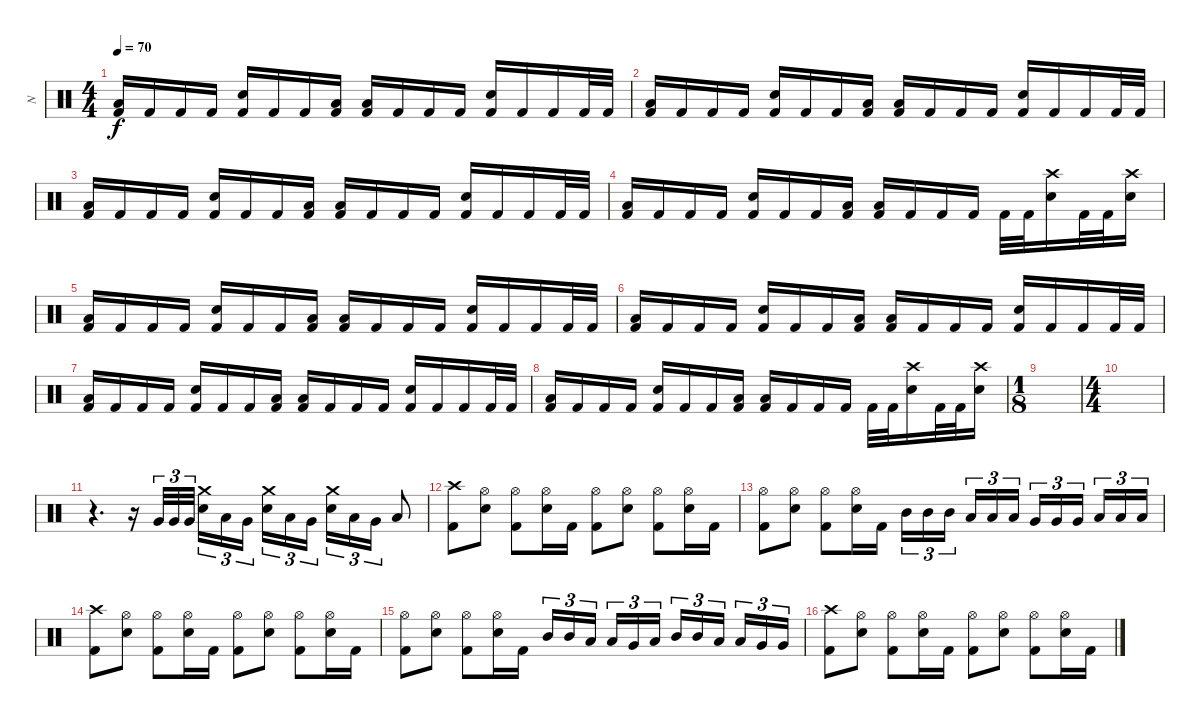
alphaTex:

\track ("N" "N") {instrument percussion}
\staff {score}
\articulation defaults
\ts (4 4)
\section ("" " ")
\tempo 70
\clef neutral
\ks c
("Low Tom (hit)" "Kick (hit) 2").16{dy f} "Kick (hit) 2".16 "Kick (hit) 2".16 "Kick (hit) 2".16 ("Electric Snare (hit)" "Kick (hit) 2").16 "Kick (hit) 2".16 "Kick (hit) 2".16 ("Low Tom (hit)" "Kick (hit) 2").16 ("Low Tom (hit)" "Kick (hit) 2").16 "Kick (hit) 2".16 "Kick (hit) 2".16 "Kick (hit) 2".16 ("Electric Snare (hit)" "Kick (hit) 2").16 "Kick (hit) 2".16 "Kick (hit) 2".16 "Kick (hit) 2".32 "Kick (hit) 2".32 |
("Low Tom (hit)" "Kick (hit) 2").16 "Kick (hit) 2".16 "Kick (hit) 2".16 "Kick (hit) 2".16 ("Electric Snare (hit)" "Kick (hit) 2").16 "Kick (hit) 2".16 "Kick (hit) 2".16 ("Low Tom (hit)" "Kick (hit) 2").16 ("Low Tom (hit)" "Kick (hit) 2").16 "Kick (hit) 2".16 "Kick (hit) 2".16 "Kick (hit) 2".16 ("Electric Snare (hit)" "Kick (hit) 2").16 "Kick (hit) 2".16 "Kick (hit) 2".16 "Kick (hit) 2".32 "Kick (hit) 2".32 |
("Low Tom (hit)" "Kick (hit) 2").16 "Kick (hit) 2".16 "Kick (hit) 2".16 "Kick (hit) 2".16 ("Electric Snare (hit)" "Kick (hit) 2").16 "Kick (hit) 2".16 "Kick (hit) 2".16 ("Low Tom (hit)" "Kick (hit) 2").16 ("Low Tom (hit)" "Kick (hit) 2").16 "Kick (hit) 2".16 "Kick (hit) 2".16 "Kick (hit) 2".16 ("Electric Snare (hit)" "Kick (hit) 2").16 "Kick (hit) 2".16 "Kick (hit) 2".16 "Kick (hit) 2".32 "Kick (hit) 2".32 |
("Low Tom (hit)" "Kick (hit) 2").16 "Kick (hit) 2".16 "Kick (hit) 2".16 "Kick (hit) 2".16 ("Electric Snare (hit)" "Kick (hit) 2").16 "Kick (hit) 2".16 "Kick (hit) 2".16 ("Low Tom (hit)" "Kick (hit) 2").16 ("Low Tom (hit)" "Kick (hit) 2").16 "Kick (hit) 2".16 "Kick (hit) 2".16 "Kick (hit) 2".16 "Kick (hit) 2".32 "Kick (hit) 2".32 ("Crash high (hit)" "Electric Snare (hit)").16 "Kick (hit) 2".32 "Kick (hit) 2".32 ("Crash high (hit)" "Electric Snare (hit)").16 |
("Low Tom (hit)" "Kick (hit) 2").16 "Kick (hit) 2".16 "Kick (hit) 2".16 "Kick (hit) 2".16 ("Electric Snare (hit)" "Kick (hit) 2").16 "Kick (hit) 2".16 "Kick (hit) 2".16 ("Low Tom (hit)" "Kick (hit) 2").16 ("Low Tom (hit)" "Kick (hit) 2").16 "Kick (hit) 2".16 "Kick (hit) 2".16 "Kick (hit) 2".16 ("Electric Snare (hit)" "Kick (hit) 2").16 "Kick (hit) 2".16 "Kick (hit) 2".16 "Kick (hit) 2".32 "Kick (hit) 2".32 |
("Low Tom (hit)" "Kick (hit) 2").16 "Kick (hit) 2".16 "Kick (hit) 2".16 "Kick (hit) 2".16 ("Electric Snare (hit)" "Kick (hit) 2").16 "Kick (hit) 2".16 "Kick (hit) 2".16 ("Low Tom (hit)" "Kick (hit) 2").16 ("Low Tom (hit)" "Kick (hit) 2").16 "Kick (hit) 2".16 "Kick (hit) 2".16 "Kick (hit) 2".16 ("Electric Snare (hit)" "Kick (hit) 2").16 "Kick (hit) 2".16 "Kick (hit) 2".16 "Kick (hit) 2".32 "Kick (hit) 2".32 |
("Low Tom (hit)" "Kick (hit) 2").16 "Kick (hit) 2".16 "Kick (hit) 2".16 "Kick (hit) 2".16 ("Electric Snare (hit)" "Kick (hit) 2").16 "Kick (hit) 2".16 "Kick (hit) 2".16 ("Low Tom (hit)" "Kick (hit) 2").16 ("Low Tom (hit)" "Kick (hit) 2").16 "Kick (hit) 2".16 "Kick (hit) 2".16 "Kick (hit) 2".16 ("Electric Snare (hit)" "Kick (hit) 2").16 "Kick (hit) 2".16 "Kick (hit) 2".16 "Kick (hit) 2".32 "Kick (hit) 2".32 |
("Low Tom (hit)" "Kick (hit) 2").16 "Kick (hit) 2".16 "Kick (hit) 2".16 "Kick (hit) 2".16 ("Electric Snare (hit)" "Kick (hit) 2").16 "Kick (hit) 2".16 "Kick (hit) 2".16 ("Low Tom (hit)" "Kick (hit) 2").16 ("Low Tom (hit)" "Kick (hit) 2").16 "Kick (hit) 2".16 "Kick (hit) 2".16 "Kick (hit) 2".16 "Kick (hit) 2".32 "Kick (hit) 2".32 ("Crash high (hit)" "Electric Snare (hit)").16 "Kick (hit) 2".32 "Kick (hit) 2".32 ("Crash high (hit)" "Electric Snare (hit)").16 |
\ts (1 8)
|
\ts (4 4)
\section ("" " ")
|
r.4{d} r.16 "Very Low Tom (hit)".32{tu (3 2)} "Very Low Tom (hit)".32{tu (3 2)} "Very Low Tom (hit)".32{tu (3 2)} ("Crash medium (hit)" "Electric Snare (hit)").16{tu (3 2)} "Low Tom (hit)".16{tu (3 2)} "Very Low Tom (hit)".16{tu (3 2)} ("Crash medium (hit)" "Electric Snare (hit)").16{tu (3 2)} "Low Tom (hit)".16{tu (3 2)} "Very Low Tom (hit)".16{tu (3 2)} ("Crash medium (hit)" "Electric Snare (hit)").16{tu (3 2)} "Low Tom (hit)".16{tu (3 2)} "Very Low Tom (hit)".16{tu (3 2)} "Low Floor Tom (hit)".8 |
("Crash high (hit)" "Kick (hit) 2").8 ("Hi-Hat (open)" "Electric Snare (hit)").8 ("Hi-Hat (open)" "Kick (hit) 2").8 ("Hi-Hat (open)" "Electric Snare (hit)").16 "Kick (hit) 2".16 ("Hi-Hat (open)" "Kick (hit) 2").8 ("Hi-Hat (open)" "Electric Snare (hit)").8 ("Hi-Hat (open)" "Kick (hit) 2").8 ("Hi-Hat (open)" "Electric Snare (hit)").16 "Kick (hit) 2".16 |
("Hi-Hat (open)" "Kick (hit) 2").8 ("Hi-Hat (open)" "Electric Snare (hit)").8 ("Hi-Hat (open)" "Kick (hit) 2").8 ("Hi-Hat (open)" "Electric Snare (hit)").16 "Kick (hit) 2".16 "Mid Tom (hit)".16{tu (3 2)} "Mid Tom (hit)".16{tu (3 2)} "Mid Tom (hit)".16{tu (3 2)} "Low Tom (hit)".16{tu (3 2)} "Low Tom (hit)".16{tu (3 2)} "Low Tom (hit)".16{tu (3 2)} "Very Low Tom (hit)".16{tu (3 2)} "Very Low Tom (hit)".16{tu (3 2)} "Very Low Tom (hit)".16{tu (3 2)} "Low Floor Tom (hit)".16{tu (3 2)} "Low Floor Tom (hit)".16{tu (3 2)} "Low Floor Tom (hit)".16{tu (3 2)} |
("Crash high (hit)" "Kick (hit) 2").8 ("Hi-Hat (open)" "Electric Snare (hit)").8 ("Hi-Hat (open)" "Kick (hit) 2").8 ("Hi-Hat (open)" "Electric Snare (hit)").16 "Kick (hit) 2".16 ("Hi-Hat (open)" "Kick (hit) 2").8 ("Hi-Hat (open)" "Electric Snare (hit)").8 ("Hi-Hat (open)" "Kick (hit) 2").8 ("Hi-Hat (open)" "Electric Snare (hit)").16 "Kick (hit) 2".16 |
("Hi-Hat (open)" "Kick (hit) 2").8 ("Hi-Hat (open)" "Electric Snare (hit)").8 ("Hi-Hat (open)" "Kick (hit) 2").8 ("Hi-Hat (open)" "Electric Snare (hit)").16 "Kick (hit) 2".16 "Mid Tom (hit)".16{tu (3 2)} "Mid Tom (hit)".16{tu (3 2)} "Low Tom (hit)".16{tu (3 2)} "Low Tom (hit)".16{tu (3 2)} "Very Low Tom (hit)".16{tu (3 2)} "Low Floor Tom (hit)".16{tu (3 2)} "Mid Tom (hit)".16{tu (3 2)} "Mid Tom (hit)".16{tu (3 2)} "Low Tom (hit)".16{tu (3 2)} "Low Tom (hit)".16{tu (3 2)} "Very Low Tom (hit)".16{tu (3 2)} "Very Low Tom (hit)".16{tu (3 2)} |
("Crash high (hit)" "Kick (hit) 2").8 ("Hi-Hat (open)" "Electric Snare (hit)").8 ("Hi-Hat (open)" "Kick (hit) 2").8 ("Hi-Hat (open)" "Electric Snare (hit)").16 "Kick (hit) 2".16 ("Hi-Hat (open)" "Kick (hit) 2").8 ("Hi-Hat (open)" "Electric Snare (hit)").8 ("Hi-Hat (open)" "Kick (hit) 2").8 ("Hi-Hat (open)" "Electric Snare (hit)").16 "Kick (hit) 2".16
